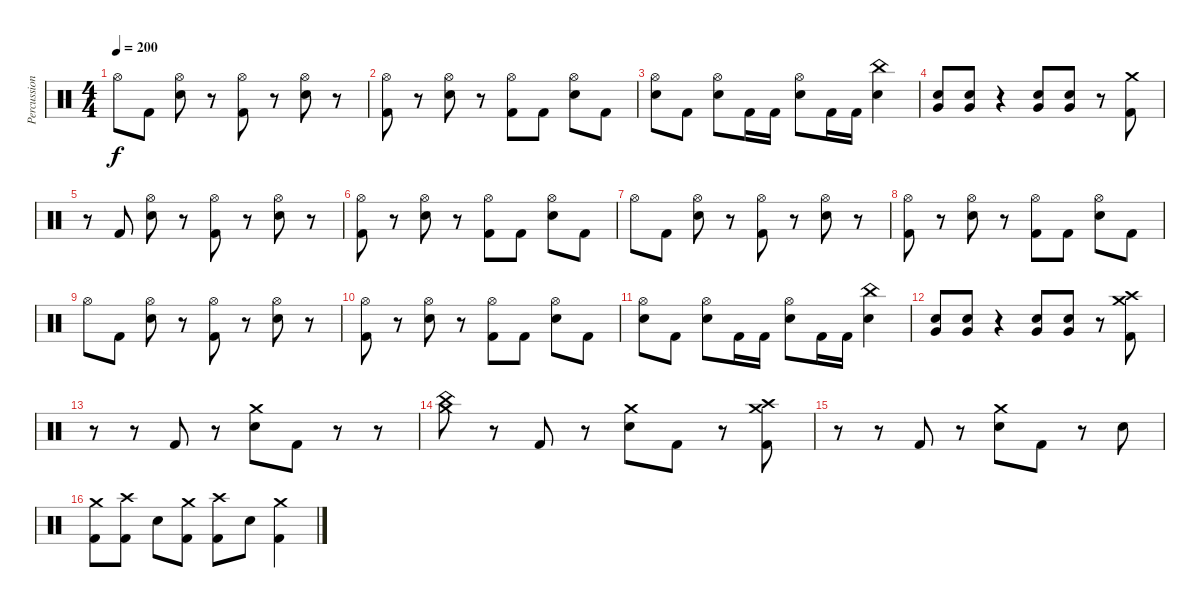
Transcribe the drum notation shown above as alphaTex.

\track ("Percussion" "Percussion") {instrument percussion}
\staff {score}
\articulation defaults
\ts (4 4)
\tempo 200
\clef neutral
\ks c "Hi-Hat (open)".8{dy f} "Kick (hit) 2".8
("Electric Snare (hit)" "Hi-Hat (open)").8 r.8 ("Kick (hit) 2" "Hi-Hat (open)").8 r.8 ("Electric Snare (hit)" "Hi-Hat (open)").8 r.8 |
("Kick (hit) 2" "Hi-Hat (open)").8 r.8 ("Electric Snare (hit)" "Hi-Hat (open)").8 r.8 ("Kick (hit) 2" "Hi-Hat (open)").8 "Kick (hit) 2".8 ("Electric Snare (hit)" "Hi-Hat (open)").8 "Kick (hit) 2".8 |
("Electric Snare (hit)" "Hi-Hat (open)").8 "Kick (hit) 2".8 ("Electric Snare (hit)" "Hi-Hat (open)").8 "Kick (hit) 2".16 "Kick (hit) 2".16 ("Electric Snare (hit)" "Hi-Hat (open)").8 "Kick (hit) 2".16 "Kick (hit) 2".16 ("Electric Snare (hit)" "China (hit)").4 |
("Electric Snare (hit)" "Very Low Tom (hit)").8 ("Electric Snare (hit)" "Very Low Tom (hit)").8 r.4 ("Electric Snare (hit)" "Very Low Tom (hit)").8 ("Electric Snare (hit)" "Very Low Tom (hit)").8 r.8 ("Kick (hit) 2" "Crash medium (hit)").8 |
r.8 "Kick (hit) 2".8 ("Electric Snare (hit)" "Hi-Hat (open)").8 r.8 ("Kick (hit) 2" "Hi-Hat (open)").8 r.8 ("Electric Snare (hit)" "Hi-Hat (open)").8 r.8 |
("Kick (hit) 2" "Hi-Hat (open)").8 r.8 ("Electric Snare (hit)" "Hi-Hat (open)").8 r.8 ("Kick (hit) 2" "Hi-Hat (open)").8 "Kick (hit) 2".8 ("Electric Snare (hit)" "Hi-Hat (open)").8 "Kick (hit) 2".8 |
"Hi-Hat (open)".8 "Kick (hit) 2".8 ("Electric Snare (hit)" "Hi-Hat (open)").8 r.8 ("Kick (hit) 2" "Hi-Hat (open)").8 r.8 ("Electric Snare (hit)" "Hi-Hat (open)").8 r.8 |
("Kick (hit) 2" "Hi-Hat (open)").8 r.8 ("Electric Snare (hit)" "Hi-Hat (open)").8 r.8 ("Kick (hit) 2" "Hi-Hat (open)").8 "Kick (hit) 2".8 ("Electric Snare (hit)" "Hi-Hat (open)").8 "Kick (hit) 2".8 |
"Hi-Hat (open)".8 "Kick (hit) 2".8 ("Electric Snare (hit)" "Hi-Hat (open)").8 r.8 ("Kick (hit) 2" "Hi-Hat (open)").8 r.8 ("Electric Snare (hit)" "Hi-Hat (open)").8 r.8 |
("Kick (hit) 2" "Hi-Hat (open)").8 r.8 ("Electric Snare (hit)" "Hi-Hat (open)").8 r.8 ("Kick (hit) 2" "Hi-Hat (open)").8 "Kick (hit) 2".8 ("Electric Snare (hit)" "Hi-Hat (open)").8 "Kick (hit) 2".8 |
("Electric Snare (hit)" "Hi-Hat (open)").8 "Kick (hit) 2".8 ("Electric Snare (hit)" "Hi-Hat (open)").8 "Kick (hit) 2".16 "Kick (hit) 2".16 ("Electric Snare (hit)" "Hi-Hat (open)").8 "Kick (hit) 2".16 "Kick (hit) 2".16 ("Electric Snare (hit)" "China (hit)").4 |
("Electric Snare (hit)" "Very Low Tom (hit)").8 ("Electric Snare (hit)" "Very Low Tom (hit)").8 r.4 ("Electric Snare (hit)" "Very Low Tom (hit)").8 ("Electric Snare (hit)" "Very Low Tom (hit)").8 r.8 ("Kick (hit) 2" "Crash medium (hit)" "Crash high (hit)").8 |
r.8 r.8 "Kick (hit) 2".8 r.8 ("Electric Snare (hit)" "Crash medium (hit)").8 "Kick (hit) 2".8 r.8 r.8 |
("Crash medium (hit)" "China (hit)").8 r.8 "Kick (hit) 2".8 r.8 ("Electric Snare (hit)" "Crash medium (hit)").8 "Kick (hit) 2".8 r.8 ("Kick (hit) 2" "Crash medium (hit)" "Crash high (hit)").8 |
r.8 r.8 "Kick (hit) 2".8 r.8 ("Electric Snare (hit)" "Crash medium (hit)").8 "Kick (hit) 2".8 r.8 "Electric Snare (hit)".8 |
("Kick (hit) 2" "Crash medium (hit)").8 ("Kick (hit) 2" "Crash high (hit)").8 "Electric Snare (hit)".8 ("Kick (hit) 2" "Crash medium (hit)").8 ("Kick (hit) 2" "Crash high (hit)").8 "Electric Snare (hit)".8 ("Kick (hit) 2" "Crash medium (hit)").4
